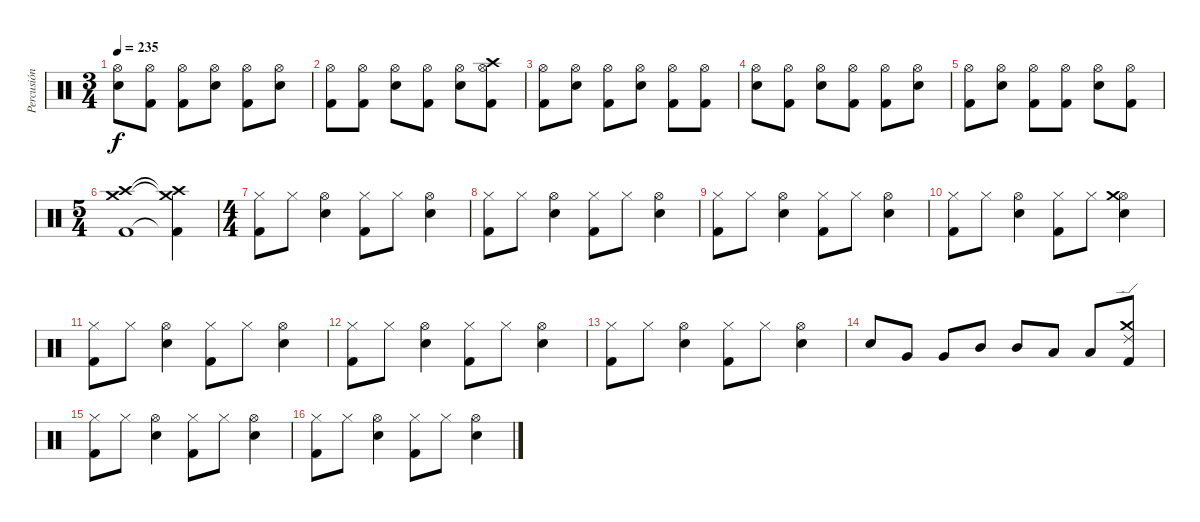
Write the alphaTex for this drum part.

\track ("Percusión" "Percusión") {instrument percussion}
\staff {score}
\articulation defaults
\ts (3 4)
\tempo 235
\clef neutral
\ks c
("Electric Snare (hit)" "Hi-Hat (open)").8{dy f} ("Kick (hit) 2" "Hi-Hat (open)").8 ("Kick (hit) 2" "Hi-Hat (open)").8 ("Electric Snare (hit)" "Hi-Hat (open)").8 ("Kick (hit) 2" "Hi-Hat (open)").8 ("Electric Snare (hit)" "Hi-Hat (open)").8 |
("Kick (hit) 2" "Hi-Hat (open)").8 ("Kick (hit) 2" "Hi-Hat (open)").8 ("Electric Snare (hit)" "Hi-Hat (open)").8 ("Kick (hit) 2" "Hi-Hat (open)").8 ("Electric Snare (hit)" "Hi-Hat (open)").8 ("Kick (hit) 2" "Hi-Hat (open)" "Crash high (hit)").8 |
("Kick (hit) 2" "Hi-Hat (open)").8 ("Electric Snare (hit)" "Hi-Hat (open)").8 ("Kick (hit) 2" "Hi-Hat (open)").8 ("Electric Snare (hit)" "Hi-Hat (open)").8 ("Kick (hit) 2" "Hi-Hat (open)").8 ("Kick (hit) 2" "Hi-Hat (open)").8 |
("Electric Snare (hit)" "Hi-Hat (open)").8 ("Kick (hit) 2" "Hi-Hat (open)").8 ("Electric Snare (hit)" "Hi-Hat (open)").8 ("Kick (hit) 2" "Hi-Hat (open)").8 ("Kick (hit) 2" "Hi-Hat (open)").8 ("Electric Snare (hit)" "Hi-Hat (open)").8 |
("Kick (hit) 2" "Hi-Hat (open)").8 ("Electric Snare (hit)" "Hi-Hat (open)").8 ("Kick (hit) 2" "Hi-Hat (open)").8 ("Kick (hit) 2" "Hi-Hat (open)").8 ("Electric Snare (hit)" "Hi-Hat (open)").8 ("Kick (hit) 2" "Hi-Hat (open)").8 |
\ts (5 4)
("Crash high (hit)" "Crash medium (hit)" "Kick (hit) 2").1 ("Crash high (hit)"{t} "Crash medium (hit)"{t} "Kick (hit) 2"{t}).4 |
\ts (4 4)
("Hi-Hat (closed)" "Kick (hit) 2").8 "Hi-Hat (closed)".8 ("Electric Snare (hit)" "Hi-Hat (open)").4 ("Hi-Hat (closed)" "Kick (hit) 2").8 "Hi-Hat (closed)".8 ("Electric Snare (hit)" "Hi-Hat (open)").4 |
("Hi-Hat (closed)" "Kick (hit) 2").8 "Hi-Hat (closed)".8 ("Electric Snare (hit)" "Hi-Hat (open)").4 ("Hi-Hat (closed)" "Kick (hit) 2").8 "Hi-Hat (closed)".8 ("Electric Snare (hit)" "Hi-Hat (open)").4 |
("Hi-Hat (closed)" "Kick (hit) 2").8 "Hi-Hat (closed)".8 ("Electric Snare (hit)" "Hi-Hat (open)").4 ("Hi-Hat (closed)" "Kick (hit) 2").8 "Hi-Hat (closed)".8 ("Electric Snare (hit)" "Hi-Hat (open)").4 |
("Hi-Hat (closed)" "Kick (hit) 2").8 "Hi-Hat (closed)".8 ("Electric Snare (hit)" "Hi-Hat (open)").4 ("Hi-Hat (closed)" "Kick (hit) 2").8 "Hi-Hat (closed)".8 ("Electric Snare (hit)" "Hi-Hat (open)" "Crash medium (hit)").4 |
("Hi-Hat (closed)" "Kick (hit) 2").8 "Hi-Hat (closed)".8 ("Electric Snare (hit)" "Hi-Hat (open)").4 ("Hi-Hat (closed)" "Kick (hit) 2").8 "Hi-Hat (closed)".8 ("Electric Snare (hit)" "Hi-Hat (open)").4 |
("Hi-Hat (closed)" "Kick (hit) 2").8 "Hi-Hat (closed)".8 ("Electric Snare (hit)" "Hi-Hat (open)").4 ("Hi-Hat (closed)" "Kick (hit) 2").8 "Hi-Hat (closed)".8 ("Electric Snare (hit)" "Hi-Hat (open)").4 |
("Hi-Hat (closed)" "Kick (hit) 2").8 "Hi-Hat (closed)".8 ("Electric Snare (hit)" "Hi-Hat (open)").4 ("Hi-Hat (closed)" "Kick (hit) 2").8 "Hi-Hat (closed)".8 ("Electric Snare (hit)" "Hi-Hat (open)").4 |
"Electric Snare (hit)".8 "Very Low Tom (hit)".8 "Very Low Tom (hit)".8 "Mid Tom (hit)".8 "Mid Tom (hit)".8 "Low Tom (hit)".8 "Low Tom (hit)".8 ("Kick (hit) 2" "Crash medium (hit)" "Ride (edge) 2").8 |
("Hi-Hat (closed)" "Kick (hit) 2").8 "Hi-Hat (closed)".8 ("Electric Snare (hit)" "Hi-Hat (open)").4 ("Hi-Hat (closed)" "Kick (hit) 2").8 "Hi-Hat (closed)".8 ("Electric Snare (hit)" "Hi-Hat (open)").4 |
("Hi-Hat (closed)" "Kick (hit) 2").8 "Hi-Hat (closed)".8 ("Electric Snare (hit)" "Hi-Hat (open)").4 ("Hi-Hat (closed)" "Kick (hit) 2").8 "Hi-Hat (closed)".8 ("Electric Snare (hit)" "Hi-Hat (open)").4
